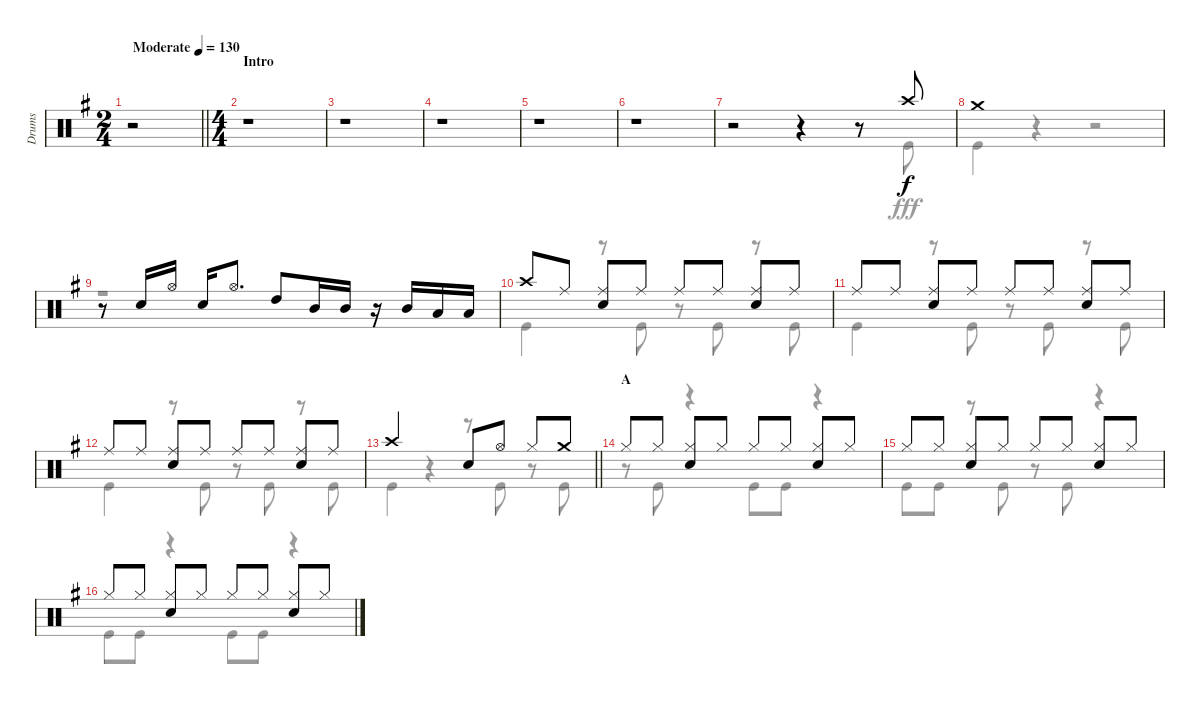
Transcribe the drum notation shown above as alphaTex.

\track ("Drums" "Drums") {instrument percussion}
\staff {score}
\articulation defaults
\voice
\ts (2 4)
\tempo (130 "Moderate")
\clef neutral
\barLineRight lightlight
\ks g
r.2{dy f} |
\ts (4 4)
\section ("" "Intro")
r.1 |
r.1 |
r.1 |
r.1 |
r.1 |
r.2 r.4 r.8 "Crash high (hit)".8 |
"Crash medium (hit)".1 |
r.8 "Snare (hit) 2".16 "Hi-Hat (open)".16 "Snare (hit) 2".16 "Hi-Hat (open)".8{d} "High Tom (hit)".8 "Mid Tom (hit)".16 "Mid Tom (hit)".16 r.16 "Mid Tom (hit)".16 "Low Tom (hit)".16 "Low Tom (hit)".16 |
"Crash high (hit)".8 "Ride (middle)".8 ("Ride (middle)" "Snare (hit) 2").8 "Ride (middle)".8 "Ride (middle)".8 "Ride (middle)".8 ("Ride (middle)" "Snare (hit) 2").8 "Ride (middle)".8 |
"Ride (middle)".8 "Ride (middle)".8 ("Ride (middle)" "Snare (hit) 2").8 "Ride (middle)".8 "Ride (middle)".8 "Ride (middle)".8 ("Ride (middle)" "Snare (hit) 2").8 "Ride (middle)".8 |
"Ride (middle)".8 "Ride (middle)".8 ("Ride (middle)" "Snare (hit) 2").8 "Ride (middle)".8 "Ride (middle)".8 "Ride (middle)".8 ("Ride (middle)" "Snare (hit) 2").8 "Ride (middle)".8 |
\barLineRight lightlight "Crash high (hit)".2 "Snare (hit) 2".8 "Hi-Hat (open)".8 "Hi-Hat (closed)".8 "Crash medium (hit)".8
|
\section ("" "A")
"Hi-Hat (closed)".8 "Hi-Hat (closed)".8 ("Hi-Hat (closed)" "Snare (hit) 2").8 "Hi-Hat (closed)".8 "Hi-Hat (closed)".8 "Hi-Hat (closed)".8 ("Hi-Hat (closed)" "Snare (hit) 2").8 "Hi-Hat (closed)".8 |
"Hi-Hat (closed)".8 "Hi-Hat (closed)".8 ("Hi-Hat (closed)" "Snare (hit) 2").8 "Hi-Hat (closed)".8 "Hi-Hat (closed)".8 "Hi-Hat (closed)".8 ("Hi-Hat (closed)" "Snare (hit) 2").8 "Hi-Hat (closed)".8 |
"Hi-Hat (closed)".8 "Hi-Hat (closed)".8 ("Hi-Hat (closed)" "Snare (hit) 2").8 "Hi-Hat (closed)".8 "Hi-Hat (closed)".8 "Hi-Hat (closed)".8 ("Hi-Hat (closed)" "Snare (hit) 2").8 "Hi-Hat (closed)".8
\voice
\clef neutral
\ottava regular
\simile none
\barLineRight lightlight
\ks g
r.2{dy fff} |
r.1 |
r.1 |
r.1 |
r.1 |
r.1 |
r.2 r.4 r.8 "Kick (hit)".8 |
"Kick (hit)".4 r.4 r.2 |
r.1 |
"Kick (hit)".4 r.8 "Kick (hit)".8 r.8 "Kick (hit)".8 r.8 "Kick (hit)".8 |
"Kick (hit)".4 r.8 "Kick (hit)".8 r.8 "Kick (hit)".8 r.8 "Kick (hit)".8 |
"Kick (hit)".4 r.8 "Kick (hit)".8 r.8 "Kick (hit)".8 r.8 "Kick (hit)".8 |
\barLineRight lightlight "Kick (hit)".4
r.4 r.8 "Kick (hit)".8 r.8 "Kick (hit)".8 |
r.8 "Kick (hit)".8 r.4 "Kick (hit)".8 "Kick (hit)".8 r.4 |
"Kick (hit)".8 "Kick (hit)".8 r.8 "Kick (hit)".8 r.8 "Kick (hit)".8 r.4 |
"Kick (hit)".8 "Kick (hit)".8 r.4 "Kick (hit)".8 "Kick (hit)".8 r.4
